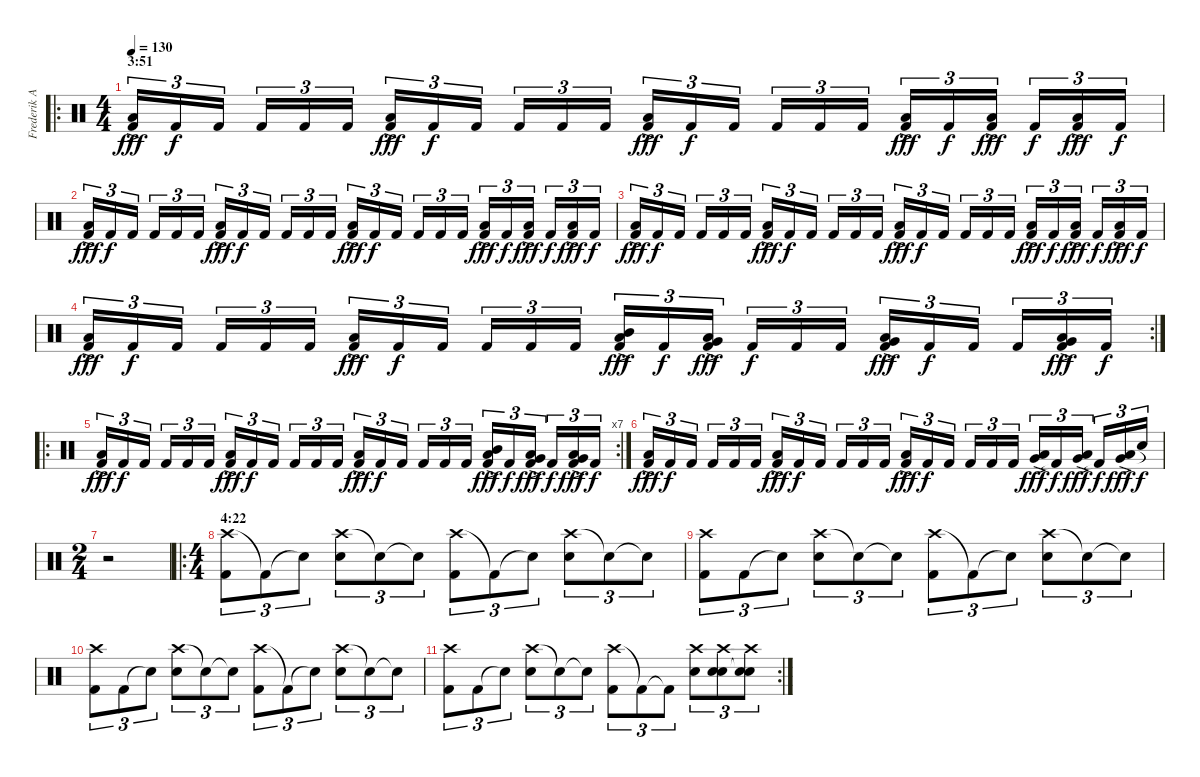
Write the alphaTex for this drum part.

\track ("Frederik Anderson" "Frederik A") {instrument percussion}
\staff {score}
\articulation defaults
\ro
\ts (4 4)
\section ("" "3:51")
\tempo 130
\clef neutral
\ks c
("Low Floor Tom (hit)"{ac} "Kick (hit) 2").16{tu (3 2) dy fff} "Kick (hit) 2".16{tu (3 2) dy f} "Kick (hit) 2".16{tu (3 2)} "Kick (hit) 2".16{tu (3 2)} "Kick (hit) 2".16{tu (3 2)} "Kick (hit) 2".16{tu (3 2)} ("Low Floor Tom (hit)"{ac} "Kick (hit) 2").16{tu (3 2) dy fff} "Kick (hit) 2".16{tu (3 2) dy f} "Kick (hit) 2".16{tu (3 2)} "Kick (hit) 2".16{tu (3 2)} "Kick (hit) 2".16{tu (3 2)} "Kick (hit) 2".16{tu (3 2)} ("Low Floor Tom (hit)"{ac} "Kick (hit) 2").16{tu (3 2) dy fff} "Kick (hit) 2".16{tu (3 2) dy f} "Kick (hit) 2".16{tu (3 2)} "Kick (hit) 2".16{tu (3 2)} "Kick (hit) 2".16{tu (3 2)} "Kick (hit) 2".16{tu (3 2)} ("Low Floor Tom (hit)"{ac} "Kick (hit) 2").16{tu (3 2) dy fff} "Kick (hit) 2".16{tu (3 2) dy f} ("Low Floor Tom (hit)"{ac} "Kick (hit) 2").16{tu (3 2) dy fff} "Kick (hit) 2".16{tu (3 2) dy f} ("Low Floor Tom (hit)"{ac} "Kick (hit) 2").16{tu (3 2) dy fff} "Kick (hit) 2".16{tu (3 2) dy f} |
("Low Floor Tom (hit)"{ac} "Kick (hit) 2").16{tu (3 2) dy fff} "Kick (hit) 2".16{tu (3 2) dy f} "Kick (hit) 2".16{tu (3 2)} "Kick (hit) 2".16{tu (3 2)} "Kick (hit) 2".16{tu (3 2)} "Kick (hit) 2".16{tu (3 2)} ("Low Floor Tom (hit)"{ac} "Kick (hit) 2").16{tu (3 2) dy fff} "Kick (hit) 2".16{tu (3 2) dy f} "Kick (hit) 2".16{tu (3 2)} "Kick (hit) 2".16{tu (3 2)} "Kick (hit) 2".16{tu (3 2)} "Kick (hit) 2".16{tu (3 2)} ("Low Floor Tom (hit)"{ac} "Kick (hit) 2").16{tu (3 2) dy fff} "Kick (hit) 2".16{tu (3 2) dy f} "Kick (hit) 2".16{tu (3 2)} "Kick (hit) 2".16{tu (3 2)} "Kick (hit) 2".16{tu (3 2)} "Kick (hit) 2".16{tu (3 2)} ("Low Floor Tom (hit)"{ac} "Kick (hit) 2").16{tu (3 2) dy fff} "Kick (hit) 2".16{tu (3 2) dy f} ("Low Floor Tom (hit)"{ac} "Kick (hit) 2").16{tu (3 2) dy fff} "Kick (hit) 2".16{tu (3 2) dy f} ("Low Floor Tom (hit)"{ac} "Kick (hit) 2").16{tu (3 2) dy fff} "Kick (hit) 2".16{tu (3 2) dy f} |
("Low Floor Tom (hit)"{ac} "Kick (hit) 2").16{tu (3 2) dy fff} "Kick (hit) 2".16{tu (3 2) dy f} "Kick (hit) 2".16{tu (3 2)} "Kick (hit) 2".16{tu (3 2)} "Kick (hit) 2".16{tu (3 2)} "Kick (hit) 2".16{tu (3 2)} ("Low Floor Tom (hit)"{ac} "Kick (hit) 2").16{tu (3 2) dy fff} "Kick (hit) 2".16{tu (3 2) dy f} "Kick (hit) 2".16{tu (3 2)} "Kick (hit) 2".16{tu (3 2)} "Kick (hit) 2".16{tu (3 2)} "Kick (hit) 2".16{tu (3 2)} ("Low Floor Tom (hit)"{ac} "Kick (hit) 2").16{tu (3 2) dy fff} "Kick (hit) 2".16{tu (3 2) dy f} "Kick (hit) 2".16{tu (3 2)} "Kick (hit) 2".16{tu (3 2)} "Kick (hit) 2".16{tu (3 2)} "Kick (hit) 2".16{tu (3 2)} ("Low Floor Tom (hit)"{ac} "Kick (hit) 2").16{tu (3 2) dy fff} "Kick (hit) 2".16{tu (3 2) dy f} ("Low Floor Tom (hit)"{ac} "Kick (hit) 2").16{tu (3 2) dy fff} "Kick (hit) 2".16{tu (3 2) dy f} ("Low Floor Tom (hit)"{ac} "Kick (hit) 2").16{tu (3 2) dy fff} "Kick (hit) 2".16{tu (3 2) dy f} |
\rc 2
("Low Floor Tom (hit)"{ac} "Kick (hit) 2").16{tu (3 2) dy fff} "Kick (hit) 2".16{tu (3 2) dy f} "Kick (hit) 2".16{tu (3 2)} "Kick (hit) 2".16{tu (3 2)} "Kick (hit) 2".16{tu (3 2)} "Kick (hit) 2".16{tu (3 2)} ("Low Floor Tom (hit)"{ac} "Kick (hit) 2").16{tu (3 2) dy fff} "Kick (hit) 2".16{tu (3 2) dy f} "Kick (hit) 2".16{tu (3 2)} "Kick (hit) 2".16{tu (3 2)} "Kick (hit) 2".16{tu (3 2)} "Kick (hit) 2".16{tu (3 2)} ("Mid Tom (hit)"{ac} "Low Tom (hit)"{ac} "Kick (hit) 2").16{tu (3 2) dy fff} "Kick (hit) 2".16{tu (3 2) dy f} ("Low Tom (hit)"{ac} "Very Low Tom (hit)"{ac} "Kick (hit) 2").16{tu (3 2) dy fff} "Kick (hit) 2".16{tu (3 2) dy f} "Kick (hit) 2".16{tu (3 2)} "Kick (hit) 2".16{tu (3 2)} ("Very Low Tom (hit)"{ac} "Low Floor Tom (hit)"{ac} "Kick (hit) 2").16{tu (3 2) dy fff} "Kick (hit) 2".16{tu (3 2) dy f} "Kick (hit) 2".16{tu (3 2)} "Kick (hit) 2".16{tu (3 2)} ("Very Low Tom (hit)"{ac} "Low Floor Tom (hit)"{ac} "Kick (hit) 2").16{tu (3 2) dy fff} "Kick (hit) 2".16{tu (3 2) dy f} |
\ro
\rc 7
("Low Floor Tom (hit)"{ac} "Kick (hit) 2").16{tu (3 2) dy fff} "Kick (hit) 2".16{tu (3 2) dy f} "Kick (hit) 2".16{tu (3 2)} "Kick (hit) 2".16{tu (3 2)} "Kick (hit) 2".16{tu (3 2)} "Kick (hit) 2".16{tu (3 2)} ("Low Floor Tom (hit)"{ac} "Kick (hit) 2").16{tu (3 2) dy fff} "Kick (hit) 2".16{tu (3 2) dy f} "Kick (hit) 2".16{tu (3 2)} "Kick (hit) 2".16{tu (3 2)} "Kick (hit) 2".16{tu (3 2)} "Kick (hit) 2".16{tu (3 2)} ("Low Floor Tom (hit)"{ac} "Kick (hit) 2").16{tu (3 2) dy fff} "Kick (hit) 2".16{tu (3 2) dy f} "Kick (hit) 2".16{tu (3 2)} "Kick (hit) 2".16{tu (3 2)} "Kick (hit) 2".16{tu (3 2)} "Kick (hit) 2".16{tu (3 2)} ("Mid Tom (hit)"{ac} "Low Tom (hit)"{ac} "Kick (hit) 2").16{tu (3 2) dy fff} "Kick (hit) 2".16{tu (3 2) dy f} ("Low Tom (hit)"{ac} "Very Low Tom (hit)"{ac} "Kick (hit) 2").16{tu (3 2) dy fff} "Kick (hit) 2".16{tu (3 2) dy f} ("Very Low Tom (hit)"{ac} "Low Floor Tom (hit)"{ac} "Kick (hit) 2").16{tu (3 2) dy fff} "Kick (hit) 2".16{tu (3 2) dy f} |
("Low Floor Tom (hit)"{ac} "Kick (hit) 2").16{tu (3 2) dy fff} "Kick (hit) 2".16{tu (3 2) dy f} "Kick (hit) 2".16{tu (3 2)} "Kick (hit) 2".16{tu (3 2)} "Kick (hit) 2".16{tu (3 2)} "Kick (hit) 2".16{tu (3 2)} ("Low Floor Tom (hit)"{ac} "Kick (hit) 2").16{tu (3 2) dy fff} "Kick (hit) 2".16{tu (3 2) dy f} "Kick (hit) 2".16{tu (3 2)} "Kick (hit) 2".16{tu (3 2)} "Kick (hit) 2".16{tu (3 2)} "Kick (hit) 2".16{tu (3 2)} ("Low Floor Tom (hit)"{ac} "Kick (hit) 2").16{tu (3 2) dy fff} "Kick (hit) 2".16{tu (3 2) dy f} "Kick (hit) 2".16{tu (3 2)} "Kick (hit) 2".16{tu (3 2)} "Kick (hit) 2".16{tu (3 2)} "Kick (hit) 2".16{tu (3 2)} ("Very Low Tom (hit)"{ac} "Low Floor Tom (hit)"{ac}).16{tu (3 2) dy fff} "Kick (hit) 2"{t}.16{tu (3 2) dy f} ("Very Low Tom (hit)"{ac} "Low Floor Tom (hit)"{ac}).16{tu (3 2) dy fff} "Kick (hit) 2"{t}.16{tu (3 2) dy f} ("Very Low Tom (hit)"{ac} "Low Floor Tom (hit)"{ac}).16{tu (3 2) dy fff} "Snare (hit)"{t}.16{tu (3 2) dy f} |
\ts (2 4)
r.2 |
\ro
\ts (4 4)
\section ("" "4:22")
("Crash high (hit)" "Kick (hit) 2").8{tu (3 2)} "Kick (hit) 2"{t}.8{tu (3 2)} "Snare (hit)"{t}.8{tu (3 2)} ("Crash high (hit)" "Electric Snare (hit)").8{tu (3 2)} "Snare (hit)"{t}.8{tu (3 2)} "Snare (hit)"{t}.8{tu (3 2)} ("Crash high (hit)" "Kick (hit) 2").8{tu (3 2)} "Kick (hit) 2"{t}.8{tu (3 2)} "Snare (hit)"{t}.8{tu (3 2)} ("Crash high (hit)" "Electric Snare (hit)").8{tu (3 2)} "Snare (hit)"{t}.8{tu (3 2)} "Snare (hit)"{t}.8{tu (3 2)} |
("Crash high (hit)" "Kick (hit) 2").8{tu (3 2)} "Kick (hit) 2".8{tu (3 2)} "Snare (hit)"{t}.8{tu (3 2)} ("Crash high (hit)" "Electric Snare (hit)").8{tu (3 2)} "Snare (hit)"{t}.8{tu (3 2)} "Snare (hit)"{t}.8{tu (3 2)} ("Crash high (hit)" "Kick (hit) 2").8{tu (3 2)} "Kick (hit) 2"{t}.8{tu (3 2)} "Snare (hit)"{t}.8{tu (3 2)} ("Crash high (hit)" "Electric Snare (hit)").8{tu (3 2)} "Snare (hit)"{t}.8{tu (3 2)} "Snare (hit)"{t}.8{tu (3 2)} |
("Crash high (hit)" "Kick (hit) 2").8{tu (3 2)} "Kick (hit) 2".8{tu (3 2)} "Snare (hit)"{t}.8{tu (3 2)} ("Crash high (hit)" "Electric Snare (hit)").8{tu (3 2)} "Snare (hit)"{t}.8{tu (3 2)} "Snare (hit)"{t}.8{tu (3 2)} ("Crash high (hit)" "Kick (hit) 2").8{tu (3 2)} "Kick (hit) 2"{t}.8{tu (3 2)} "Snare (hit)"{t}.8{tu (3 2)} ("Crash high (hit)" "Electric Snare (hit)").8{tu (3 2)} "Snare (hit)"{t}.8{tu (3 2)} "Snare (hit)"{t}.8{tu (3 2)} |
\rc 2
("Crash high (hit)" "Kick (hit) 2").8{tu (3 2)} "Kick (hit) 2".8{tu (3 2)} "Snare (hit)"{t}.8{tu (3 2)} ("Crash high (hit)" "Electric Snare (hit)").8{tu (3 2)} "Snare (hit)"{t}.8{tu (3 2)} "Snare (hit)"{t}.8{tu (3 2)} ("Crash high (hit)" "Kick (hit) 2").8{tu (3 2)} "Kick (hit) 2"{t}.8{tu (3 2)} "Kick (hit) 2"{t}.8{tu (3 2)} ("Crash high (hit)" "Electric Snare (hit)").8{tu (3 2)} ("Crash high (hit)" "Electric Snare (hit)" "Snare (hit)").8{tu (3 2)} ("Crash high (hit)" "Electric Snare (hit)" "Snare (hit)"{t}).8{tu (3 2)}
